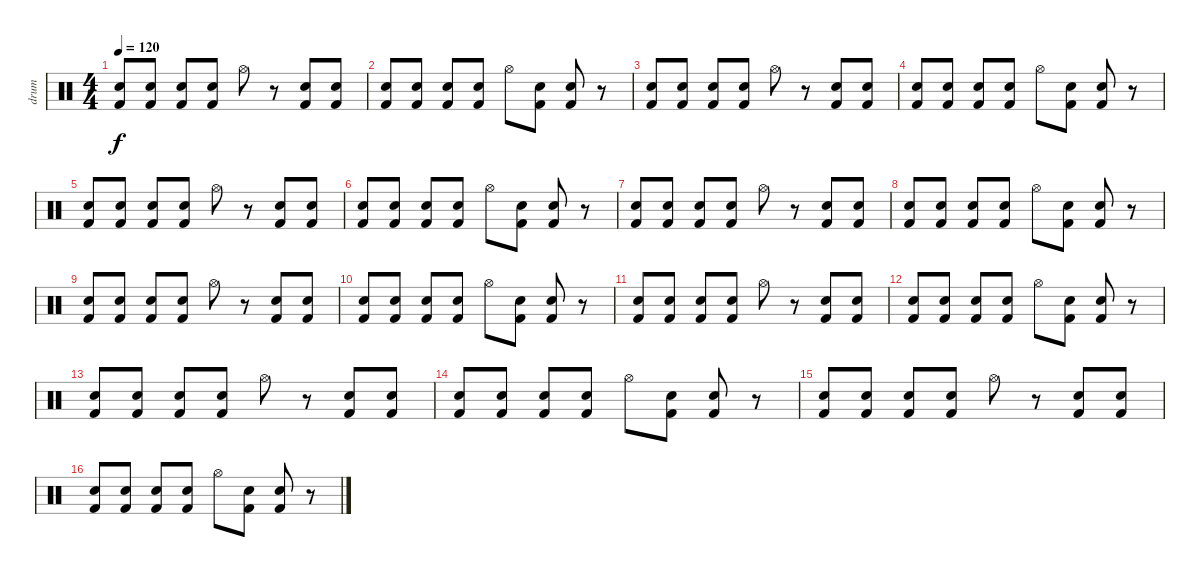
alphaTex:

\track ("drum" "drum") {instrument percussion}
\staff {score}
\articulation defaults
\ts (4 4)
\tempo 120
\clef neutral
\ks c
("Kick (hit) 2" "Snare (hit) 2").8{dy f} ("Kick (hit) 2" "Snare (hit) 2").8 ("Kick (hit) 2" "Snare (hit) 2").8 ("Kick (hit) 2" "Snare (hit) 2").8 "Hi-Hat (open)".8 r.8 ("Kick (hit) 2" "Snare (hit) 2").8 ("Kick (hit) 2" "Snare (hit) 2").8 |
("Kick (hit) 2" "Snare (hit) 2").8 ("Kick (hit) 2" "Snare (hit) 2").8 ("Kick (hit) 2" "Snare (hit) 2").8 ("Kick (hit) 2" "Snare (hit) 2").8 "Hi-Hat (open)".8 ("Kick (hit) 2" "Snare (hit) 2").8 ("Kick (hit) 2" "Snare (hit) 2").8 r.8 |
("Kick (hit) 2" "Snare (hit) 2").8 ("Kick (hit) 2" "Snare (hit) 2").8 ("Kick (hit) 2" "Snare (hit) 2").8 ("Kick (hit) 2" "Snare (hit) 2").8 "Hi-Hat (open)".8 r.8 ("Kick (hit) 2" "Snare (hit) 2").8 ("Kick (hit) 2" "Snare (hit) 2").8 |
("Kick (hit) 2" "Snare (hit) 2").8 ("Kick (hit) 2" "Snare (hit) 2").8 ("Kick (hit) 2" "Snare (hit) 2").8 ("Kick (hit) 2" "Snare (hit) 2").8 "Hi-Hat (open)".8 ("Kick (hit) 2" "Snare (hit) 2").8 ("Kick (hit) 2" "Snare (hit) 2").8 r.8 |
("Kick (hit) 2" "Snare (hit) 2").8 ("Kick (hit) 2" "Snare (hit) 2").8 ("Kick (hit) 2" "Snare (hit) 2").8 ("Kick (hit) 2" "Snare (hit) 2").8 "Hi-Hat (open)".8 r.8 ("Kick (hit) 2" "Snare (hit) 2").8 ("Kick (hit) 2" "Snare (hit) 2").8 |
("Kick (hit) 2" "Snare (hit) 2").8 ("Kick (hit) 2" "Snare (hit) 2").8 ("Kick (hit) 2" "Snare (hit) 2").8 ("Kick (hit) 2" "Snare (hit) 2").8 "Hi-Hat (open)".8 ("Kick (hit) 2" "Snare (hit) 2").8 ("Kick (hit) 2" "Snare (hit) 2").8 r.8 |
("Kick (hit) 2" "Snare (hit) 2").8 ("Kick (hit) 2" "Snare (hit) 2").8 ("Kick (hit) 2" "Snare (hit) 2").8 ("Kick (hit) 2" "Snare (hit) 2").8 "Hi-Hat (open)".8 r.8 ("Kick (hit) 2" "Snare (hit) 2").8 ("Kick (hit) 2" "Snare (hit) 2").8 |
("Kick (hit) 2" "Snare (hit) 2").8 ("Kick (hit) 2" "Snare (hit) 2").8 ("Kick (hit) 2" "Snare (hit) 2").8 ("Kick (hit) 2" "Snare (hit) 2").8 "Hi-Hat (open)".8 ("Kick (hit) 2" "Snare (hit) 2").8 ("Kick (hit) 2" "Snare (hit) 2").8 r.8 |
("Kick (hit) 2" "Snare (hit) 2").8 ("Kick (hit) 2" "Snare (hit) 2").8 ("Kick (hit) 2" "Snare (hit) 2").8 ("Kick (hit) 2" "Snare (hit) 2").8 "Hi-Hat (open)".8 r.8 ("Kick (hit) 2" "Snare (hit) 2").8 ("Kick (hit) 2" "Snare (hit) 2").8 |
("Kick (hit) 2" "Snare (hit) 2").8 ("Kick (hit) 2" "Snare (hit) 2").8 ("Kick (hit) 2" "Snare (hit) 2").8 ("Kick (hit) 2" "Snare (hit) 2").8 "Hi-Hat (open)".8 ("Kick (hit) 2" "Snare (hit) 2").8 ("Kick (hit) 2" "Snare (hit) 2").8 r.8 |
("Kick (hit) 2" "Snare (hit) 2").8 ("Kick (hit) 2" "Snare (hit) 2").8 ("Kick (hit) 2" "Snare (hit) 2").8 ("Kick (hit) 2" "Snare (hit) 2").8 "Hi-Hat (open)".8 r.8 ("Kick (hit) 2" "Snare (hit) 2").8 ("Kick (hit) 2" "Snare (hit) 2").8 |
("Kick (hit) 2" "Snare (hit) 2").8 ("Kick (hit) 2" "Snare (hit) 2").8 ("Kick (hit) 2" "Snare (hit) 2").8 ("Kick (hit) 2" "Snare (hit) 2").8 "Hi-Hat (open)".8 ("Kick (hit) 2" "Snare (hit) 2").8 ("Kick (hit) 2" "Snare (hit) 2").8 r.8 |
("Kick (hit) 2" "Snare (hit) 2").8 ("Kick (hit) 2" "Snare (hit) 2").8 ("Kick (hit) 2" "Snare (hit) 2").8 ("Kick (hit) 2" "Snare (hit) 2").8 "Hi-Hat (open)".8 r.8 ("Kick (hit) 2" "Snare (hit) 2").8 ("Kick (hit) 2" "Snare (hit) 2").8 |
("Kick (hit) 2" "Snare (hit) 2").8 ("Kick (hit) 2" "Snare (hit) 2").8 ("Kick (hit) 2" "Snare (hit) 2").8 ("Kick (hit) 2" "Snare (hit) 2").8 "Hi-Hat (open)".8 ("Kick (hit) 2" "Snare (hit) 2").8 ("Kick (hit) 2" "Snare (hit) 2").8 r.8 |
("Kick (hit) 2" "Snare (hit) 2").8 ("Kick (hit) 2" "Snare (hit) 2").8 ("Kick (hit) 2" "Snare (hit) 2").8 ("Kick (hit) 2" "Snare (hit) 2").8 "Hi-Hat (open)".8 r.8 ("Kick (hit) 2" "Snare (hit) 2").8 ("Kick (hit) 2" "Snare (hit) 2").8 |
("Kick (hit) 2" "Snare (hit) 2").8 ("Kick (hit) 2" "Snare (hit) 2").8 ("Kick (hit) 2" "Snare (hit) 2").8 ("Kick (hit) 2" "Snare (hit) 2").8 "Hi-Hat (open)".8 ("Kick (hit) 2" "Snare (hit) 2").8 ("Kick (hit) 2" "Snare (hit) 2").8 r.8
